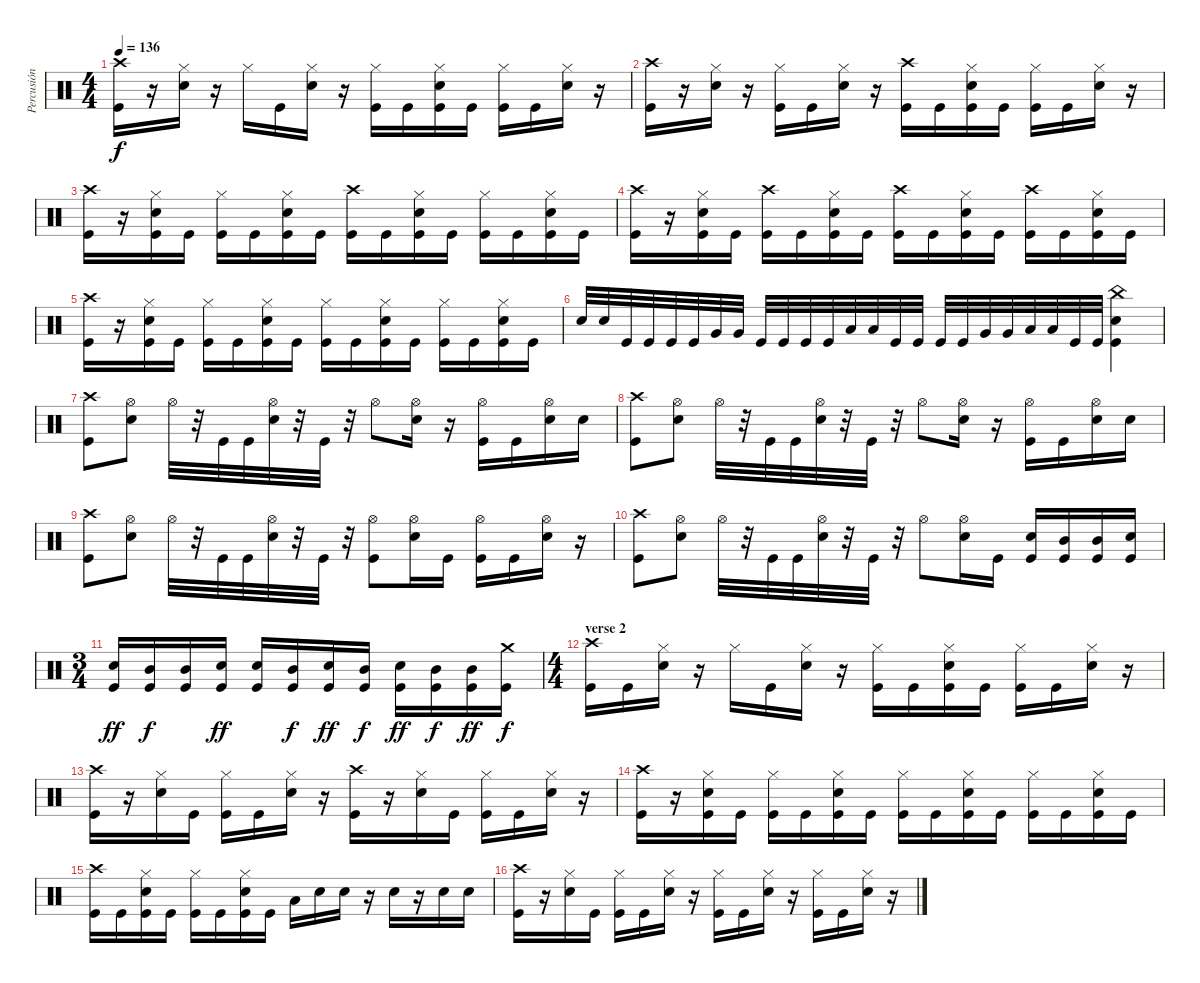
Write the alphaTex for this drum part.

\track ("Percusión" "Percusión") {instrument percussion}
\staff {score}
\articulation defaults
\ts (4 4)
\tempo 136
\clef neutral
\ks c
("Crash high (hit)" "Kick (hit)").16{dy f} r.16 ("Hi-Hat (closed)" "Snare (hit) 2").16 r.16 "Hi-Hat (closed)".16 "Kick (hit)".16 ("Hi-Hat (closed)" "Snare (hit) 2").16 r.16 ("Hi-Hat (closed)" "Kick (hit)").16 "Kick (hit)".16 ("Hi-Hat (closed)" "Snare (hit) 2" "Kick (hit)").16 "Kick (hit)".16 ("Hi-Hat (closed)" "Kick (hit)").16 "Kick (hit)".16 ("Hi-Hat (closed)" "Snare (hit) 2").16 r.16 |
("Crash high (hit)" "Kick (hit)").16 r.16 ("Hi-Hat (closed)" "Snare (hit) 2").16 r.16 ("Hi-Hat (closed)" "Kick (hit)").16 "Kick (hit)".16 ("Hi-Hat (closed)" "Snare (hit) 2").16 r.16 ("Crash high (hit)" "Kick (hit)").16 "Kick (hit)".16 ("Hi-Hat (closed)" "Snare (hit) 2" "Kick (hit)").16 "Kick (hit)".16 ("Hi-Hat (closed)" "Kick (hit)").16 "Kick (hit)".16 ("Hi-Hat (closed)" "Snare (hit) 2").16 r.16 |
("Crash high (hit)" "Kick (hit)").16 r.16 ("Hi-Hat (closed)" "Snare (hit) 2" "Kick (hit)").16 "Kick (hit)".16 ("Hi-Hat (closed)" "Kick (hit)").16 "Kick (hit)".16 ("Hi-Hat (closed)" "Snare (hit) 2" "Kick (hit)").16 "Kick (hit)".16 ("Crash high (hit)" "Kick (hit)").16 "Kick (hit)".16 ("Hi-Hat (closed)" "Snare (hit) 2" "Kick (hit)").16 "Kick (hit)".16 ("Hi-Hat (closed)" "Kick (hit)").16 "Kick (hit)".16 ("Hi-Hat (closed)" "Snare (hit) 2" "Kick (hit)").16 "Kick (hit)".16 |
("Crash high (hit)" "Kick (hit)").16 r.16 ("Hi-Hat (closed)" "Snare (hit) 2" "Kick (hit)").16 "Kick (hit)".16 ("Crash high (hit)" "Kick (hit)").16 "Kick (hit)".16 ("Hi-Hat (closed)" "Snare (hit) 2" "Kick (hit)").16 "Kick (hit)".16 ("Crash high (hit)" "Kick (hit)").16 "Kick (hit)".16 ("Hi-Hat (closed)" "Snare (hit) 2" "Kick (hit)").16 "Kick (hit)".16 ("Crash high (hit)" "Kick (hit)").16 "Kick (hit)".16 ("Hi-Hat (closed)" "Snare (hit) 2" "Kick (hit)").16 "Kick (hit)".16 |
("Crash high (hit)" "Kick (hit)").16 r.16 ("Hi-Hat (closed)" "Snare (hit) 2" "Kick (hit)").16 "Kick (hit)".16 ("Hi-Hat (closed)" "Kick (hit)").16 "Kick (hit)".16 ("Hi-Hat (closed)" "Snare (hit) 2" "Kick (hit)").16 "Kick (hit)".16 ("Hi-Hat (closed)" "Kick (hit)").16 "Kick (hit)".16 ("Hi-Hat (closed)" "Snare (hit) 2" "Kick (hit)").16 "Kick (hit)".16 ("Hi-Hat (closed)" "Kick (hit)").16 "Kick (hit)".16 ("Hi-Hat (closed)" "Snare (hit) 2" "Kick (hit)").16 "Kick (hit)".16 |
"Snare (hit) 2".32 "Snare (hit) 2".32 "Kick (hit)".32 "Kick (hit)".32 "Kick (hit)".32 "Kick (hit)".32 "Very Low Tom (hit)".32 "Very Low Tom (hit)".32 "Kick (hit)".32 "Kick (hit)".32 "Kick (hit)".32 "Kick (hit)".32 "Low Tom (hit)".32 "Low Tom (hit)".32 "Kick (hit)".32 "Kick (hit)".32 "Kick (hit)".32 "Kick (hit)".32 "Very Low Tom (hit)".32 "Very Low Tom (hit)".32 "Low Tom (hit)".32 "Low Tom (hit)".32 "Kick (hit)".32 "Kick (hit)".32 ("China (hit)" "Snare (hit) 2" "Kick (hit)").4 |
("Crash high (hit)" "Kick (hit)").8 ("Hi-Hat (open)" "Snare (hit) 2").8 "Hi-Hat (open)".32 r.32 "Kick (hit)".32 "Kick (hit)".32 ("Hi-Hat (open)" "Snare (hit) 2").32 r.32 "Kick (hit)".32 r.32 "Hi-Hat (open)".8 ("Hi-Hat (open)" "Snare (hit) 2").16 r.16 ("Hi-Hat (open)" "Kick (hit)").16 "Kick (hit)".16 ("Hi-Hat (open)" "Snare (hit) 2").16 "Snare (hit) 2".16 |
("Crash high (hit)" "Kick (hit)").8 ("Hi-Hat (open)" "Snare (hit) 2").8 "Hi-Hat (open)".32 r.32 "Kick (hit)".32 "Kick (hit)".32 ("Hi-Hat (open)" "Snare (hit) 2").32 r.32 "Kick (hit)".32 r.32 "Hi-Hat (open)".8 ("Hi-Hat (open)" "Snare (hit) 2").16 r.16 ("Hi-Hat (open)" "Kick (hit)").16 "Kick (hit)".16 ("Hi-Hat (open)" "Snare (hit) 2").16 "Snare (hit) 2".16 |
("Crash high (hit)" "Kick (hit)").8 ("Hi-Hat (open)" "Snare (hit) 2").8 "Hi-Hat (open)".32 r.32 "Kick (hit)".32 "Kick (hit)".32 ("Hi-Hat (open)" "Snare (hit) 2").32 r.32 "Kick (hit)".32 r.32 ("Hi-Hat (open)" "Kick (hit)").8 ("Hi-Hat (open)" "Snare (hit) 2").16 "Kick (hit)".16 ("Hi-Hat (open)" "Kick (hit)").16 "Kick (hit)".16 ("Hi-Hat (open)" "Snare (hit) 2").16 r.16 |
("Crash high (hit)" "Kick (hit)").8 ("Hi-Hat (open)" "Snare (hit) 2").8 "Hi-Hat (open)".32 r.32 "Kick (hit)".32 "Kick (hit)".32 ("Hi-Hat (open)" "Snare (hit) 2").32 r.32 "Kick (hit)".32 r.32 "Hi-Hat (open)".8 ("Hi-Hat (open)" "Snare (hit) 2").16 "Kick (hit)".16 ("Electric Snare (hit)" "Kick (hit)").16 ("Mid Tom (hit)" "Kick (hit)").16 ("Mid Tom (hit)" "Kick (hit)").16 ("Electric Snare (hit)" "Kick (hit)").16 |
\ts (3 4)
("Electric Snare (hit)" "Kick (hit)").16{dy ff} ("Mid Tom (hit)" "Kick (hit)").16{dy f} ("Mid Tom (hit)" "Kick (hit)").16 ("Electric Snare (hit)" "Kick (hit)").16{dy ff} ("Electric Snare (hit)" "Kick (hit)").16 ("Mid Tom (hit)" "Kick (hit)").16{dy f} ("Electric Snare (hit)" "Kick (hit)").16{dy ff} ("Mid Tom (hit)" "Kick (hit)").16{dy f} ("Electric Snare (hit)" "Kick (hit)").16{dy ff} ("Mid Tom (hit)" "Kick (hit)").16{dy f} ("Mid Tom (hit)" "Kick (hit)").16{dy ff} ("Crash medium (hit)" "Kick (hit)").16{dy f} |
\ts (4 4)
\section ("" "verse 2")
("Crash high (hit)" "Kick (hit)").16 "Kick (hit)".16 ("Hi-Hat (closed)" "Snare (hit) 2").16 r.16 "Hi-Hat (closed)".16 "Kick (hit)".16 ("Hi-Hat (closed)" "Snare (hit) 2").16 r.16 ("Hi-Hat (closed)" "Kick (hit)").16 "Kick (hit)".16 ("Hi-Hat (closed)" "Snare (hit) 2" "Kick (hit)").16 "Kick (hit)".16 ("Hi-Hat (closed)" "Kick (hit)").16 "Kick (hit)".16 ("Hi-Hat (closed)" "Snare (hit) 2").16 r.16 |
("Crash high (hit)" "Kick (hit)").16 r.16 ("Hi-Hat (closed)" "Snare (hit) 2").16 "Kick (hit)".16 ("Hi-Hat (closed)" "Kick (hit)").16 "Kick (hit)".16 ("Hi-Hat (closed)" "Snare (hit) 2").16 r.16 ("Crash high (hit)" "Kick (hit)").16 r.16 ("Hi-Hat (closed)" "Snare (hit) 2").16 "Kick (hit)".16 ("Hi-Hat (closed)" "Kick (hit)").16 "Kick (hit)".16 ("Hi-Hat (closed)" "Snare (hit) 2").16 r.16 |
("Crash high (hit)" "Kick (hit)").16 r.16 ("Hi-Hat (closed)" "Snare (hit) 2" "Kick (hit)").16 "Kick (hit)".16 ("Hi-Hat (closed)" "Kick (hit)").16 "Kick (hit)".16 ("Hi-Hat (closed)" "Snare (hit) 2" "Kick (hit)").16 "Kick (hit)".16 ("Hi-Hat (closed)" "Kick (hit)").16 "Kick (hit)".16 ("Hi-Hat (closed)" "Snare (hit) 2" "Kick (hit)").16 "Kick (hit)".16 ("Hi-Hat (closed)" "Kick (hit)").16 "Kick (hit)".16 ("Hi-Hat (closed)" "Snare (hit) 2" "Kick (hit)").16 "Kick (hit)".16 |
("Crash high (hit)" "Kick (hit)").16 "Kick (hit)".16 ("Hi-Hat (closed)" "Snare (hit) 2" "Kick (hit)").16 "Kick (hit)".16 ("Hi-Hat (closed)" "Kick (hit)").16 "Kick (hit)".16 ("Hi-Hat (closed)" "Snare (hit) 2" "Kick (hit)").16 "Kick (hit)".16 "Low Tom (hit)".16 "Snare (hit) 2".16 "Snare (hit) 2".16 r.16 "Snare (hit) 2".16 r.16 "Snare (hit) 2".16 "Snare (hit) 2".16 |
("Crash high (hit)" "Kick (hit)").16 r.16 ("Hi-Hat (closed)" "Snare (hit) 2").16 "Kick (hit)".16 ("Hi-Hat (closed)" "Kick (hit)").16 "Kick (hit)".16 ("Hi-Hat (closed)" "Snare (hit) 2").16 r.16 ("Hi-Hat (closed)" "Kick (hit)").16 "Kick (hit)".16 ("Hi-Hat (closed)" "Snare (hit) 2").16 r.16 ("Hi-Hat (closed)" "Kick (hit)").16 "Kick (hit)".16 ("Hi-Hat (closed)" "Snare (hit) 2").16 r.16
